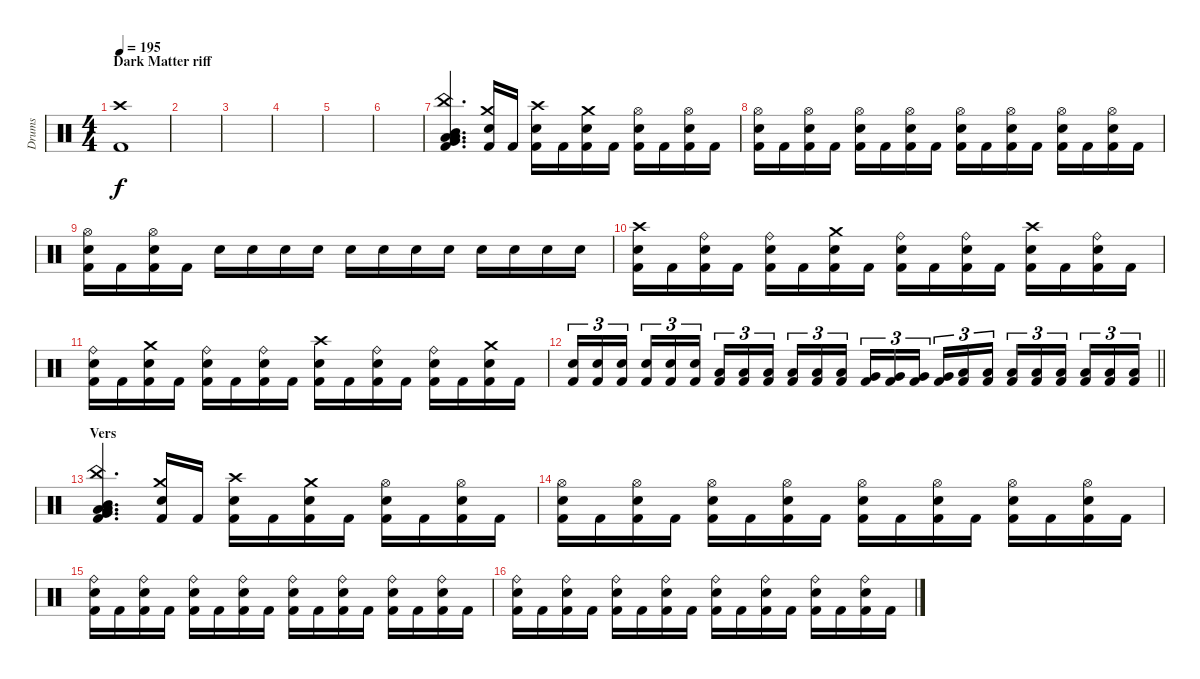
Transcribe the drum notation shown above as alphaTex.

\track ("Drums" "Drums") {instrument percussion}
\staff {score}
\articulation defaults
\ts (4 4)
\section ("" "Dark Matter riff")
\tempo 195
\clef neutral
\ks c
("Crash high (hit)" "Kick (hit) 2").1{dy f} |
|
|
|
|
|
("China (hit)" "Mid Tom (hit)" "Low Tom (hit)" "Very Low Tom (hit)" "Low Floor Tom (hit)" "Kick (hit) 2").4{d} ("Crash medium (hit)" "Electric Snare (hit)" "Kick (hit) 2").16 "Kick (hit) 2".16 ("Crash high (hit)" "Electric Snare (hit)" "Kick (hit) 2").16 "Kick (hit) 2".16 ("Crash medium (hit)" "Electric Snare (hit)" "Kick (hit) 2").16 "Kick (hit) 2".16 ("Hi-Hat (open)" "Electric Snare (hit)" "Kick (hit) 2").16 "Kick (hit) 2".16 ("Hi-Hat (open)" "Electric Snare (hit)" "Kick (hit) 2").16 "Kick (hit) 2".16 |
("Hi-Hat (open)" "Electric Snare (hit)" "Kick (hit) 2").16 "Kick (hit) 2".16 ("Hi-Hat (open)" "Electric Snare (hit)" "Kick (hit) 2").16 "Kick (hit) 2".16 ("Hi-Hat (open)" "Electric Snare (hit)" "Kick (hit) 2").16 "Kick (hit) 2".16 ("Hi-Hat (open)" "Electric Snare (hit)" "Kick (hit) 2").16 "Kick (hit) 2".16 ("Hi-Hat (open)" "Electric Snare (hit)" "Kick (hit) 2").16 "Kick (hit) 2".16 ("Hi-Hat (open)" "Electric Snare (hit)" "Kick (hit) 2").16 "Kick (hit) 2".16 ("Hi-Hat (open)" "Electric Snare (hit)" "Kick (hit) 2").16 "Kick (hit) 2".16 ("Hi-Hat (open)" "Electric Snare (hit)" "Kick (hit) 2").16 "Kick (hit) 2".16 |
("Hi-Hat (open)" "Electric Snare (hit)" "Kick (hit) 2").16 "Kick (hit) 2".16 ("Hi-Hat (open)" "Electric Snare (hit)" "Kick (hit) 2").16 "Kick (hit) 2".16 "Electric Snare (hit)".16 "Electric Snare (hit)".16 "Electric Snare (hit)".16 "Electric Snare (hit)".16 "Electric Snare (hit)".16 "Electric Snare (hit)".16 "Electric Snare (hit)".16 "Electric Snare (hit)".16 "Electric Snare (hit)".16 "Electric Snare (hit)".16 "Electric Snare (hit)".16 "Electric Snare (hit)".16 |
("Crash high (hit)" "Electric Snare (hit)" "Kick (hit) 2").16 "Kick (hit) 2".16 ("Ride (bell)" "Electric Snare (hit)" "Kick (hit) 2").16 "Kick (hit) 2".16 ("Ride (bell)" "Electric Snare (hit)" "Kick (hit) 2").16 "Kick (hit) 2".16 ("Crash medium (hit)" "Electric Snare (hit)" "Kick (hit) 2").16 "Kick (hit) 2".16 ("Ride (bell)" "Electric Snare (hit)" "Kick (hit) 2").16 "Kick (hit) 2".16 ("Ride (bell)" "Electric Snare (hit)" "Kick (hit) 2").16 "Kick (hit) 2".16 ("Crash high (hit)" "Electric Snare (hit)" "Kick (hit) 2").16 "Kick (hit) 2".16 ("Ride (bell)" "Electric Snare (hit)" "Kick (hit) 2").16 "Kick (hit) 2".16 |
("Ride (bell)" "Electric Snare (hit)" "Kick (hit) 2").16 "Kick (hit) 2".16 ("Crash medium (hit)" "Electric Snare (hit)" "Kick (hit) 2").16 "Kick (hit) 2".16 ("Ride (bell)" "Electric Snare (hit)" "Kick (hit) 2").16 "Kick (hit) 2".16 ("Ride (bell)" "Electric Snare (hit)" "Kick (hit) 2").16 "Kick (hit) 2".16 ("Crash high (hit)" "Electric Snare (hit)" "Kick (hit) 2").16 "Kick (hit) 2".16 ("Ride (bell)" "Electric Snare (hit)" "Kick (hit) 2").16 "Kick (hit) 2".16 ("Ride (bell)" "Electric Snare (hit)" "Kick (hit) 2").16 "Kick (hit) 2".16 ("Crash medium (hit)" "Electric Snare (hit)" "Kick (hit) 2").16 "Kick (hit) 2".16 |
\barLineRight lightlight
("Electric Snare (hit)" "Kick (hit) 2").16{tu (3 2)} ("Electric Snare (hit)" "Kick (hit) 2").16{tu (3 2)} ("Electric Snare (hit)" "Kick (hit) 2").16{tu (3 2) beam splitsecondary} ("Electric Snare (hit)" "Kick (hit) 2").16{tu (3 2)} ("Electric Snare (hit)" "Kick (hit) 2").16{tu (3 2)} ("Electric Snare (hit)" "Kick (hit) 2").16{tu (3 2)} ("Low Floor Tom (hit)" "Kick (hit) 2").16{tu (3 2)} ("Low Floor Tom (hit)" "Kick (hit) 2").16{tu (3 2)} ("Low Floor Tom (hit)" "Kick (hit) 2").16{tu (3 2) beam splitsecondary} ("Low Floor Tom (hit)" "Kick (hit) 2").16{tu (3 2)} ("Low Floor Tom (hit)" "Kick (hit) 2").16{tu (3 2)} ("Low Floor Tom (hit)" "Kick (hit) 2").16{tu (3 2)} ("Very Low Tom (hit)" "Kick (hit) 2").16{tu (3 2)} ("Very Low Tom (hit)" "Kick (hit) 2").16{tu (3 2)} ("Very Low Tom (hit)" "Kick (hit) 2").16{tu (3 2) beam splitsecondary} ("Very Low Tom (hit)" "Kick (hit) 2").16{tu (3 2)} ("Low Floor Tom (hit)" "Kick (hit) 2").16{tu (3 2)} ("Low Floor Tom (hit)" "Kick (hit) 2").16{tu (3 2)} ("Low Floor Tom (hit)" "Kick (hit) 2").16{tu (3 2)} ("Low Floor Tom (hit)" "Kick (hit) 2").16{tu (3 2)} ("Low Floor Tom (hit)" "Kick (hit) 2").16{tu (3 2) beam splitsecondary} ("Low Floor Tom (hit)" "Kick (hit) 2").16{tu (3 2)} ("Low Floor Tom (hit)" "Kick (hit) 2").16{tu (3 2)} ("Low Floor Tom (hit)" "Kick (hit) 2").16{tu (3 2)} |
\section ("" "Vers")
("China (hit)" "Mid Tom (hit)" "Low Tom (hit)" "Very Low Tom (hit)" "Low Floor Tom (hit)" "Kick (hit) 2").4{d} ("Crash medium (hit)" "Electric Snare (hit)" "Kick (hit) 2").16 "Kick (hit) 2".16 ("Crash high (hit)" "Electric Snare (hit)" "Kick (hit) 2").16 "Kick (hit) 2".16 ("Crash medium (hit)" "Electric Snare (hit)" "Kick (hit) 2").16 "Kick (hit) 2".16 ("Hi-Hat (open)" "Electric Snare (hit)" "Kick (hit) 2").16 "Kick (hit) 2".16 ("Hi-Hat (open)" "Electric Snare (hit)" "Kick (hit) 2").16 "Kick (hit) 2".16 |
("Hi-Hat (open)" "Electric Snare (hit)" "Kick (hit) 2").16 "Kick (hit) 2".16 ("Hi-Hat (open)" "Electric Snare (hit)" "Kick (hit) 2").16 "Kick (hit) 2".16 ("Hi-Hat (open)" "Electric Snare (hit)" "Kick (hit) 2").16 "Kick (hit) 2".16 ("Hi-Hat (open)" "Electric Snare (hit)" "Kick (hit) 2").16 "Kick (hit) 2".16 ("Hi-Hat (open)" "Electric Snare (hit)" "Kick (hit) 2").16 "Kick (hit) 2".16 ("Hi-Hat (open)" "Electric Snare (hit)" "Kick (hit) 2").16 "Kick (hit) 2".16 ("Hi-Hat (open)" "Electric Snare (hit)" "Kick (hit) 2").16 "Kick (hit) 2".16 ("Hi-Hat (open)" "Electric Snare (hit)" "Kick (hit) 2").16 "Kick (hit) 2".16 |
("Ride (bell)" "Electric Snare (hit)" "Kick (hit) 2").16 "Kick (hit) 2".16 ("Ride (bell)" "Electric Snare (hit)" "Kick (hit) 2").16 "Kick (hit) 2".16 ("Ride (bell)" "Electric Snare (hit)" "Kick (hit) 2").16 "Kick (hit) 2".16 ("Ride (bell)" "Electric Snare (hit)" "Kick (hit) 2").16 "Kick (hit) 2".16 ("Ride (bell)" "Electric Snare (hit)" "Kick (hit) 2").16 "Kick (hit) 2".16 ("Ride (bell)" "Electric Snare (hit)" "Kick (hit) 2").16 "Kick (hit) 2".16 ("Ride (bell)" "Electric Snare (hit)" "Kick (hit) 2").16 "Kick (hit) 2".16 ("Ride (bell)" "Electric Snare (hit)" "Kick (hit) 2").16 "Kick (hit) 2".16 |
("Ride (bell)" "Electric Snare (hit)" "Kick (hit) 2").16 "Kick (hit) 2".16 ("Ride (bell)" "Electric Snare (hit)" "Kick (hit) 2").16 "Kick (hit) 2".16 ("Ride (bell)" "Electric Snare (hit)" "Kick (hit) 2").16 "Kick (hit) 2".16 ("Ride (bell)" "Electric Snare (hit)" "Kick (hit) 2").16 "Kick (hit) 2".16 ("Ride (bell)" "Electric Snare (hit)" "Kick (hit) 2").16 "Kick (hit) 2".16 ("Ride (bell)" "Electric Snare (hit)" "Kick (hit) 2").16 "Kick (hit) 2".16 ("Ride (bell)" "Electric Snare (hit)" "Kick (hit) 2").16 "Kick (hit) 2".16 ("Ride (bell)" "Electric Snare (hit)" "Kick (hit) 2").16 "Kick (hit) 2".16
